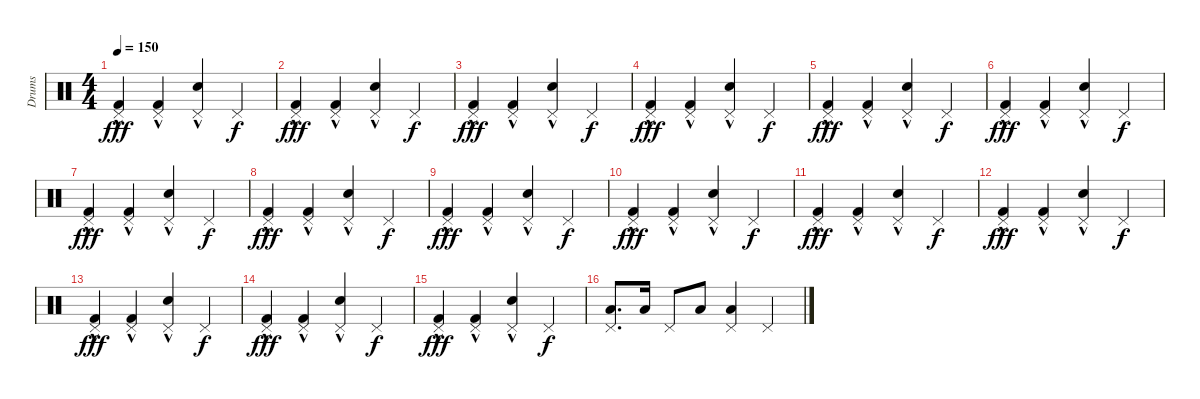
\track ("Drums" "Drums") {instrument percussion}
\staff {score}
\articulation defaults
\ts (4 4)
\tempo 150
\clef neutral
\ks c
("Pedal Hi-Hat (hit)" "Kick (hit) 2"{hac}).4{dy fff} ("Pedal Hi-Hat (hit)" "Kick (hit) 2"{hac}).4 ("Pedal Hi-Hat (hit)" "Electric Snare (hit)"{hac}).4 "Pedal Hi-Hat (hit)".4{dy f} |
("Pedal Hi-Hat (hit)" "Kick (hit) 2"{hac}).4{dy fff} ("Pedal Hi-Hat (hit)" "Kick (hit) 2"{hac}).4 ("Pedal Hi-Hat (hit)" "Electric Snare (hit)"{hac}).4 "Pedal Hi-Hat (hit)".4{dy f} |
("Pedal Hi-Hat (hit)" "Kick (hit) 2"{hac}).4{dy fff} ("Pedal Hi-Hat (hit)" "Kick (hit) 2"{hac}).4 ("Pedal Hi-Hat (hit)" "Electric Snare (hit)"{hac}).4 "Pedal Hi-Hat (hit)".4{dy f} |
("Pedal Hi-Hat (hit)" "Kick (hit) 2"{hac}).4{dy fff} ("Pedal Hi-Hat (hit)" "Kick (hit) 2"{hac}).4 ("Pedal Hi-Hat (hit)" "Electric Snare (hit)"{hac}).4 "Pedal Hi-Hat (hit)".4{dy f} |
("Pedal Hi-Hat (hit)" "Kick (hit) 2"{hac}).4{dy fff} ("Pedal Hi-Hat (hit)" "Kick (hit) 2"{hac}).4 ("Pedal Hi-Hat (hit)" "Electric Snare (hit)"{hac}).4 "Pedal Hi-Hat (hit)".4{dy f} |
("Pedal Hi-Hat (hit)" "Kick (hit) 2"{hac}).4{dy fff} ("Pedal Hi-Hat (hit)" "Kick (hit) 2"{hac}).4 ("Pedal Hi-Hat (hit)" "Electric Snare (hit)"{hac}).4 "Pedal Hi-Hat (hit)".4{dy f} |
("Pedal Hi-Hat (hit)" "Kick (hit) 2"{hac}).4{dy fff} ("Pedal Hi-Hat (hit)" "Kick (hit) 2"{hac}).4 ("Pedal Hi-Hat (hit)" "Electric Snare (hit)"{hac}).4 "Pedal Hi-Hat (hit)".4{dy f} |
("Pedal Hi-Hat (hit)" "Kick (hit) 2"{hac}).4{dy fff} ("Pedal Hi-Hat (hit)" "Kick (hit) 2"{hac}).4 ("Pedal Hi-Hat (hit)" "Electric Snare (hit)"{hac}).4 "Pedal Hi-Hat (hit)".4{dy f} |
("Pedal Hi-Hat (hit)" "Kick (hit) 2"{hac}).4{dy fff} ("Pedal Hi-Hat (hit)" "Kick (hit) 2"{hac}).4 ("Pedal Hi-Hat (hit)" "Electric Snare (hit)"{hac}).4 "Pedal Hi-Hat (hit)".4{dy f} |
("Pedal Hi-Hat (hit)" "Kick (hit) 2"{hac}).4{dy fff} ("Pedal Hi-Hat (hit)" "Kick (hit) 2"{hac}).4 ("Pedal Hi-Hat (hit)" "Electric Snare (hit)"{hac}).4 "Pedal Hi-Hat (hit)".4{dy f} |
("Pedal Hi-Hat (hit)" "Kick (hit) 2"{hac}).4{dy fff} ("Pedal Hi-Hat (hit)" "Kick (hit) 2"{hac}).4 ("Pedal Hi-Hat (hit)" "Electric Snare (hit)"{hac}).4 "Pedal Hi-Hat (hit)".4{dy f} |
("Pedal Hi-Hat (hit)" "Kick (hit) 2"{hac}).4{dy fff} ("Pedal Hi-Hat (hit)" "Kick (hit) 2"{hac}).4 ("Pedal Hi-Hat (hit)" "Electric Snare (hit)"{hac}).4 "Pedal Hi-Hat (hit)".4{dy f} |
("Pedal Hi-Hat (hit)" "Kick (hit) 2"{hac}).4{dy fff} ("Pedal Hi-Hat (hit)" "Kick (hit) 2"{hac}).4 ("Pedal Hi-Hat (hit)" "Electric Snare (hit)"{hac}).4 "Pedal Hi-Hat (hit)".4{dy f} |
("Pedal Hi-Hat (hit)" "Kick (hit) 2"{hac}).4{dy fff} ("Pedal Hi-Hat (hit)" "Kick (hit) 2"{hac}).4 ("Pedal Hi-Hat (hit)" "Electric Snare (hit)"{hac}).4 "Pedal Hi-Hat (hit)".4{dy f} |
("Pedal Hi-Hat (hit)" "Kick (hit) 2"{hac}).4{dy fff} ("Pedal Hi-Hat (hit)" "Kick (hit) 2"{hac}).4 ("Pedal Hi-Hat (hit)" "Electric Snare (hit)"{hac}).4 "Pedal Hi-Hat (hit)".4{dy f} |
("Pedal Hi-Hat (hit)" "Low Floor Tom (hit)").8{d} "Low Floor Tom (hit)".16 "Pedal Hi-Hat (hit)".8 "Low Floor Tom (hit)".8 ("Pedal Hi-Hat (hit)" "Low Floor Tom (hit)").4 "Pedal Hi-Hat (hit)".4
